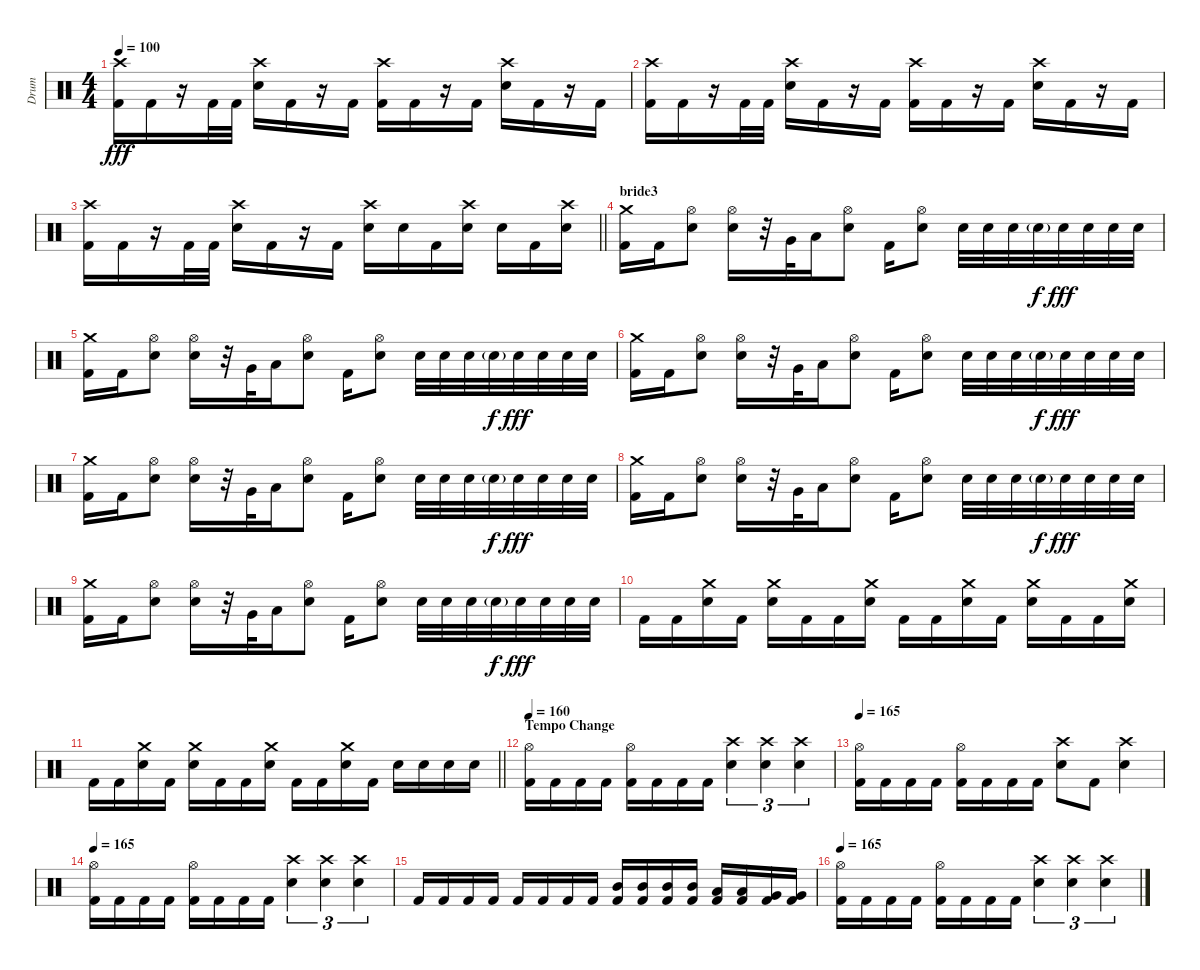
\track ("Drum" "Drum") {instrument percussion}
\staff {score}
\articulation defaults
\ts (4 4)
\tempo 100
\clef neutral
\ks c
("Crash high (hit)" "Kick (hit) 2").16{dy fff} "Kick (hit) 2".16 r.16 "Kick (hit) 2".32 "Kick (hit) 2".32 ("Crash high (hit)" "Electric Snare (hit)").16 "Kick (hit) 2".16 r.16 "Kick (hit) 2".16 ("Crash high (hit)" "Kick (hit) 2").16 "Kick (hit) 2".16 r.16 "Kick (hit) 2".16 ("Crash high (hit)" "Electric Snare (hit)").16 "Kick (hit) 2".16 r.16 "Kick (hit) 2".16 |
("Crash high (hit)" "Kick (hit) 2").16 "Kick (hit) 2".16 r.16 "Kick (hit) 2".32 "Kick (hit) 2".32 ("Crash high (hit)" "Electric Snare (hit)").16 "Kick (hit) 2".16 r.16 "Kick (hit) 2".16 ("Crash high (hit)" "Kick (hit) 2").16 "Kick (hit) 2".16 r.16 "Kick (hit) 2".16 ("Crash high (hit)" "Electric Snare (hit)").16 "Kick (hit) 2".16 r.16 "Kick (hit) 2".16 |
\barLineRight lightlight
("Crash high (hit)" "Kick (hit) 2").16 "Kick (hit) 2".16 r.16 "Kick (hit) 2".32 "Kick (hit) 2".32 ("Crash high (hit)" "Electric Snare (hit)").16 "Kick (hit) 2".16 r.16 "Kick (hit) 2".16 ("Crash high (hit)" "Electric Snare (hit)").16 "Electric Snare (hit)".16 "Kick (hit) 2".16 ("Crash high (hit)" "Electric Snare (hit)").16 "Electric Snare (hit)".16 "Kick (hit) 2".16 ("Crash high (hit)" "Electric Snare (hit)").16 |
\section ("" "bride3")
("Crash medium (hit)" "Kick (hit) 2").16 "Kick (hit) 2".16 ("Hi-Hat (open)" "Electric Snare (hit)").8 ("Hi-Hat (open)" "Electric Snare (hit)").16 r.32 "Very Low Tom (hit)".32 "Low Floor Tom (hit)".16 ("Hi-Hat (open)" "Electric Snare (hit)").8 "Kick (hit) 2".16 ("Hi-Hat (open)" "Electric Snare (hit)").8 "Electric Snare (hit)".32 "Electric Snare (hit)".32 "Electric Snare (hit)".32 "Electric Snare (hit)"{g}.32{dy f} "Electric Snare (hit)".32{dy fff} "Electric Snare (hit)".32 "Electric Snare (hit)".32 "Electric Snare (hit)".32 |
("Crash medium (hit)" "Kick (hit) 2").16 "Kick (hit) 2".16 ("Hi-Hat (open)" "Electric Snare (hit)").8 ("Hi-Hat (open)" "Electric Snare (hit)").16 r.32 "Very Low Tom (hit)".32 "Low Floor Tom (hit)".16 ("Hi-Hat (open)" "Electric Snare (hit)").8 "Kick (hit) 2".16 ("Hi-Hat (open)" "Electric Snare (hit)").8 "Electric Snare (hit)".32 "Electric Snare (hit)".32 "Electric Snare (hit)".32 "Electric Snare (hit)"{g}.32{dy f} "Electric Snare (hit)".32{dy fff} "Electric Snare (hit)".32 "Electric Snare (hit)".32 "Electric Snare (hit)".32 |
("Crash medium (hit)" "Kick (hit) 2").16 "Kick (hit) 2".16 ("Hi-Hat (open)" "Electric Snare (hit)").8 ("Hi-Hat (open)" "Electric Snare (hit)").16 r.32 "Very Low Tom (hit)".32 "Low Floor Tom (hit)".16 ("Hi-Hat (open)" "Electric Snare (hit)").8 "Kick (hit) 2".16 ("Hi-Hat (open)" "Electric Snare (hit)").8 "Electric Snare (hit)".32 "Electric Snare (hit)".32 "Electric Snare (hit)".32 "Electric Snare (hit)"{g}.32{dy f} "Electric Snare (hit)".32{dy fff} "Electric Snare (hit)".32 "Electric Snare (hit)".32 "Electric Snare (hit)".32 |
("Crash medium (hit)" "Kick (hit) 2").16 "Kick (hit) 2".16 ("Hi-Hat (open)" "Electric Snare (hit)").8 ("Hi-Hat (open)" "Electric Snare (hit)").16 r.32 "Very Low Tom (hit)".32 "Low Floor Tom (hit)".16 ("Hi-Hat (open)" "Electric Snare (hit)").8 "Kick (hit) 2".16 ("Hi-Hat (open)" "Electric Snare (hit)").8 "Electric Snare (hit)".32 "Electric Snare (hit)".32 "Electric Snare (hit)".32 "Electric Snare (hit)"{g}.32{dy f} "Electric Snare (hit)".32{dy fff} "Electric Snare (hit)".32 "Electric Snare (hit)".32 "Electric Snare (hit)".32 |
("Crash medium (hit)" "Kick (hit) 2").16 "Kick (hit) 2".16 ("Hi-Hat (open)" "Electric Snare (hit)").8 ("Hi-Hat (open)" "Electric Snare (hit)").16 r.32 "Very Low Tom (hit)".32 "Low Floor Tom (hit)".16 ("Hi-Hat (open)" "Electric Snare (hit)").8 "Kick (hit) 2".16 ("Hi-Hat (open)" "Electric Snare (hit)").8 "Electric Snare (hit)".32 "Electric Snare (hit)".32 "Electric Snare (hit)".32 "Electric Snare (hit)"{g}.32{dy f} "Electric Snare (hit)".32{dy fff} "Electric Snare (hit)".32 "Electric Snare (hit)".32 "Electric Snare (hit)".32 |
("Crash medium (hit)" "Kick (hit) 2").16 "Kick (hit) 2".16 ("Hi-Hat (open)" "Electric Snare (hit)").8 ("Hi-Hat (open)" "Electric Snare (hit)").16 r.32 "Very Low Tom (hit)".32 "Low Floor Tom (hit)".16 ("Hi-Hat (open)" "Electric Snare (hit)").8 "Kick (hit) 2".16 ("Hi-Hat (open)" "Electric Snare (hit)").8 "Electric Snare (hit)".32 "Electric Snare (hit)".32 "Electric Snare (hit)".32 "Electric Snare (hit)"{g}.32{dy f} "Electric Snare (hit)".32{dy fff} "Electric Snare (hit)".32 "Electric Snare (hit)".32 "Electric Snare (hit)".32 |
"Kick (hit) 2".16 "Kick (hit) 2".16 ("Crash medium (hit)" "Electric Snare (hit)").16 "Kick (hit) 2".16 ("Crash medium (hit)" "Electric Snare (hit)").16 "Kick (hit) 2".16 "Kick (hit) 2".16 ("Crash medium (hit)" "Electric Snare (hit)").16 "Kick (hit) 2".16 "Kick (hit) 2".16 ("Crash medium (hit)" "Electric Snare (hit)").16 "Kick (hit) 2".16 ("Crash medium (hit)" "Electric Snare (hit)").16 "Kick (hit) 2".16 "Kick (hit) 2".16 ("Crash medium (hit)" "Electric Snare (hit)").16 |
\barLineRight lightlight "Kick (hit) 2".16 "Kick (hit) 2".16
("Crash medium (hit)" "Electric Snare (hit)").16 "Kick (hit) 2".16 ("Crash medium (hit)" "Electric Snare (hit)").16 "Kick (hit) 2".16 "Kick (hit) 2".16 ("Crash medium (hit)" "Electric Snare (hit)").16 "Kick (hit) 2".16 "Kick (hit) 2".16 ("Crash medium (hit)" "Electric Snare (hit)").16 "Kick (hit) 2".16 "Electric Snare (hit)".16 "Electric Snare (hit)".16 "Electric Snare (hit)".16 "Electric Snare (hit)".16 |
\section ("" "Tempo Change")
\tempo 160
("Hi-Hat (open)" "Kick (hit) 2").16 "Kick (hit) 2".16 "Kick (hit) 2".16 "Kick (hit) 2".16 ("Hi-Hat (open)" "Kick (hit) 2").16 "Kick (hit) 2".16 "Kick (hit) 2".16 "Kick (hit) 2".16 ("Crash high (hit)" "Electric Snare (hit)").4{tu (3 2)} ("Crash high (hit)" "Electric Snare (hit)").4{tu (3 2)} ("Crash high (hit)" "Electric Snare (hit)").4{tu (3 2)} |
\tempo 165
("Hi-Hat (open)" "Kick (hit) 2").16 "Kick (hit) 2".16 "Kick (hit) 2".16 "Kick (hit) 2".16 ("Hi-Hat (open)" "Kick (hit) 2").16 "Kick (hit) 2".16 "Kick (hit) 2".16 "Kick (hit) 2".16 ("Crash high (hit)" "Electric Snare (hit)").8 "Kick (hit) 2".8 ("Crash high (hit)" "Electric Snare (hit)").4 |
\tempo 165
("Hi-Hat (open)" "Kick (hit) 2").16 "Kick (hit) 2".16 "Kick (hit) 2".16 "Kick (hit) 2".16 ("Hi-Hat (open)" "Kick (hit) 2").16 "Kick (hit) 2".16 "Kick (hit) 2".16 "Kick (hit) 2".16 ("Crash high (hit)" "Electric Snare (hit)").4{tu (3 2)} ("Crash high (hit)" "Electric Snare (hit)").4{tu (3 2)} ("Crash high (hit)" "Electric Snare (hit)").4{tu (3 2)} |
"Kick (hit) 2".16 "Kick (hit) 2".16 "Kick (hit) 2".16 "Kick (hit) 2".16 "Kick (hit) 2".16 "Kick (hit) 2".16 "Kick (hit) 2".16 "Kick (hit) 2".16 ("Mid Tom (hit)" "Kick (hit) 2").16 ("Mid Tom (hit)" "Kick (hit) 2").16 ("Mid Tom (hit)" "Kick (hit) 2").16 ("Mid Tom (hit)" "Kick (hit) 2").16 ("Low Tom (hit)" "Kick (hit) 2").16 ("Low Tom (hit)" "Kick (hit) 2").16 ("Very Low Tom (hit)" "Kick (hit) 2").16 ("Very Low Tom (hit)" "Kick (hit) 2").16 |
\tempo 165
("Hi-Hat (open)" "Kick (hit) 2").16 "Kick (hit) 2".16 "Kick (hit) 2".16 "Kick (hit) 2".16 ("Hi-Hat (open)" "Kick (hit) 2").16 "Kick (hit) 2".16 "Kick (hit) 2".16 "Kick (hit) 2".16 ("Crash high (hit)" "Electric Snare (hit)").4{tu (3 2)} ("Crash high (hit)" "Electric Snare (hit)").4{tu (3 2)} ("Crash high (hit)" "Electric Snare (hit)").4{tu (3 2)}
